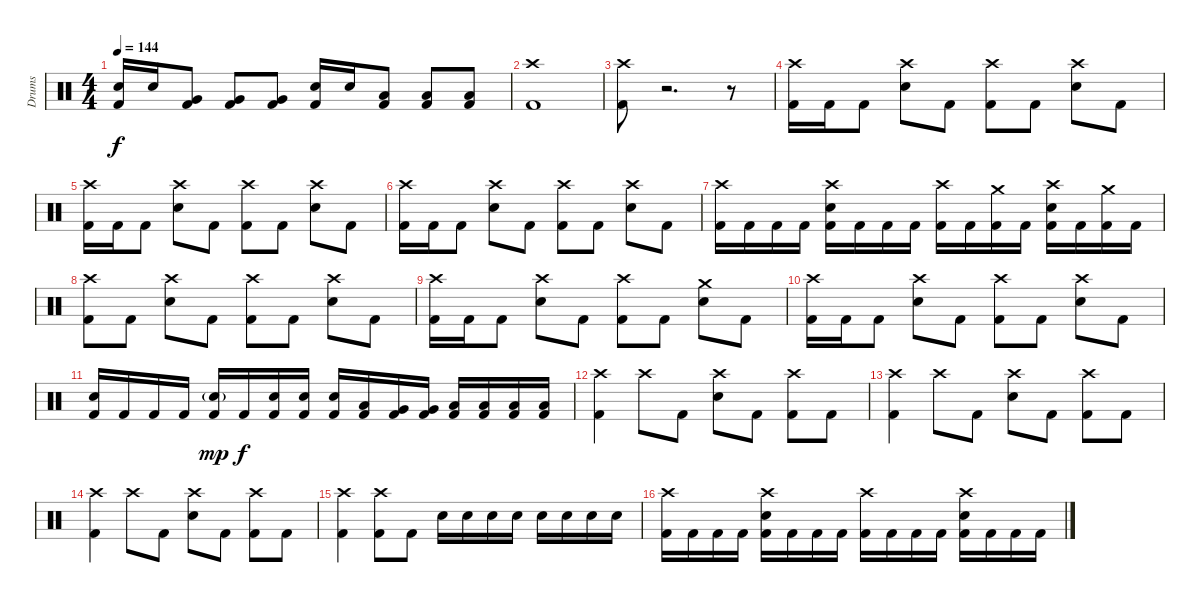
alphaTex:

\track ("Drums" "Drums") {instrument percussion}
\staff {score}
\articulation defaults
\ts (4 4)
\tempo 144
\clef neutral
\ks c
("Kick (hit) 2" "Snare (hit) 2").16{dy f} "Snare (hit) 2".16 ("Kick (hit) 2" "Very Low Tom (hit)").8 ("Kick (hit) 2" "Very Low Tom (hit)").8 ("Kick (hit) 2" "Very Low Tom (hit)").8 ("Kick (hit) 2" "Snare (hit) 2").16 "Snare (hit) 2".16 ("Kick (hit) 2" "Low Floor Tom (hit)").8 ("Kick (hit) 2" "Low Floor Tom (hit)").8 ("Kick (hit) 2" "Low Floor Tom (hit)").8 |
("Crash high (hit)" "Kick (hit) 2").1 |
("Crash high (hit)" "Kick (hit) 2").8 r.2{d volume 0} r.8 |
("Crash high (hit)" "Kick (hit) 2").16{volume 16} "Kick (hit) 2".16 "Kick (hit) 2".8 ("Crash high (hit)" "Snare (hit) 2").8 "Kick (hit) 2".8 ("Crash high (hit)" "Kick (hit) 2").8 "Kick (hit) 2".8 ("Crash high (hit)" "Snare (hit) 2").8 "Kick (hit) 2".8 |
("Crash high (hit)" "Kick (hit) 2").16 "Kick (hit) 2".16 "Kick (hit) 2".8 ("Crash high (hit)" "Snare (hit) 2").8 "Kick (hit) 2".8 ("Crash high (hit)" "Kick (hit) 2").8 "Kick (hit) 2".8 ("Crash high (hit)" "Snare (hit) 2").8 "Kick (hit) 2".8 |
("Crash high (hit)" "Kick (hit) 2").16 "Kick (hit) 2".16 "Kick (hit) 2".8 ("Crash high (hit)" "Snare (hit) 2").8 "Kick (hit) 2".8 ("Crash high (hit)" "Kick (hit) 2").8 "Kick (hit) 2".8 ("Crash high (hit)" "Snare (hit) 2").8 "Kick (hit) 2".8 |
("Crash high (hit)" "Kick (hit) 2").16 "Kick (hit) 2".16 "Kick (hit) 2".16 "Kick (hit) 2".16 ("Crash high (hit)" "Snare (hit) 2" "Kick (hit) 2").16 "Kick (hit) 2".16 "Kick (hit) 2".16 "Kick (hit) 2".16 ("Crash high (hit)" "Kick (hit) 2").16 "Kick (hit) 2".16 ("Crash medium (hit)" "Kick (hit) 2").16 "Kick (hit) 2".16 ("Crash high (hit)" "Snare (hit) 2" "Kick (hit) 2").16 "Kick (hit) 2".16 ("Crash medium (hit)" "Kick (hit) 2").16 "Kick (hit) 2".16 |
("Crash high (hit)" "Kick (hit) 2").8 "Kick (hit) 2".8 ("Crash high (hit)" "Snare (hit) 2").8 "Kick (hit) 2".8 ("Crash high (hit)" "Kick (hit) 2").8 "Kick (hit) 2".8 ("Crash high (hit)" "Snare (hit) 2").8 "Kick (hit) 2".8 |
("Crash high (hit)" "Kick (hit) 2").16 "Kick (hit) 2".16 "Kick (hit) 2".8 ("Crash high (hit)" "Snare (hit) 2").8 "Kick (hit) 2".8 ("Crash high (hit)" "Kick (hit) 2").8 "Kick (hit) 2".8 ("Crash medium (hit)" "Snare (hit) 2").8 "Kick (hit) 2".8 |
("Crash high (hit)" "Kick (hit) 2").16 "Kick (hit) 2".16 "Kick (hit) 2".8 ("Crash high (hit)" "Snare (hit) 2").8 "Kick (hit) 2".8 ("Crash high (hit)" "Kick (hit) 2").8 "Kick (hit) 2".8 ("Crash high (hit)" "Snare (hit) 2").8 "Kick (hit) 2".8 |
("Snare (hit) 2" "Kick (hit) 2").16 "Kick (hit) 2".16 "Kick (hit) 2".16 "Kick (hit) 2".16 ("Snare (hit) 2"{g} "Kick (hit) 2").16{dy mp} "Kick (hit) 2".16{dy f} ("Snare (hit) 2" "Kick (hit) 2").16 ("Snare (hit) 2" "Kick (hit) 2").16 ("Snare (hit) 2" "Kick (hit) 2").16 ("Low Tom (hit)" "Kick (hit) 2").16 ("Very Low Tom (hit)" "Kick (hit) 2").16 ("Very Low Tom (hit)" "Kick (hit) 2").16 ("Low Floor Tom (hit)" "Kick (hit) 2").16 ("Low Floor Tom (hit)" "Kick (hit) 2").16 ("Low Floor Tom (hit)" "Kick (hit) 2").16 ("Low Floor Tom (hit)" "Kick (hit) 2").16 |
("Crash high (hit)" "Kick (hit) 2").4 "Crash high (hit)".8 "Kick (hit) 2".8 ("Crash high (hit)" "Snare (hit) 2").8 "Kick (hit) 2".8 ("Crash high (hit)" "Kick (hit) 2").8 "Kick (hit) 2".8 |
("Crash high (hit)" "Kick (hit) 2").4 "Crash high (hit)".8 "Kick (hit) 2".8 ("Crash high (hit)" "Snare (hit) 2").8 "Kick (hit) 2".8 ("Crash high (hit)" "Kick (hit) 2").8 "Kick (hit) 2".8 |
("Crash high (hit)" "Kick (hit) 2").4 "Crash high (hit)".8 "Kick (hit) 2".8 ("Crash high (hit)" "Snare (hit) 2").8 "Kick (hit) 2".8 ("Crash high (hit)" "Kick (hit) 2").8 "Kick (hit) 2".8 |
("Crash high (hit)" "Kick (hit) 2").4 ("Crash high (hit)" "Kick (hit) 2").8 "Kick (hit) 2".8 "Snare (hit) 2".16 "Snare (hit) 2".16 "Snare (hit) 2".16 "Snare (hit) 2".16 "Snare (hit) 2".16 "Snare (hit) 2".16 "Snare (hit) 2".16 "Snare (hit) 2".16 |
("Crash high (hit)" "Kick (hit) 2").16 "Kick (hit) 2".16 "Kick (hit) 2".16 "Kick (hit) 2".16 ("Crash high (hit)" "Snare (hit) 2" "Kick (hit) 2").16 "Kick (hit) 2".16 "Kick (hit) 2".16 "Kick (hit) 2".16 ("Crash high (hit)" "Kick (hit) 2").16 "Kick (hit) 2".16 "Kick (hit) 2".16 "Kick (hit) 2".16 ("Crash high (hit)" "Snare (hit) 2" "Kick (hit) 2").16 "Kick (hit) 2".16 "Kick (hit) 2".16 "Kick (hit) 2".16
